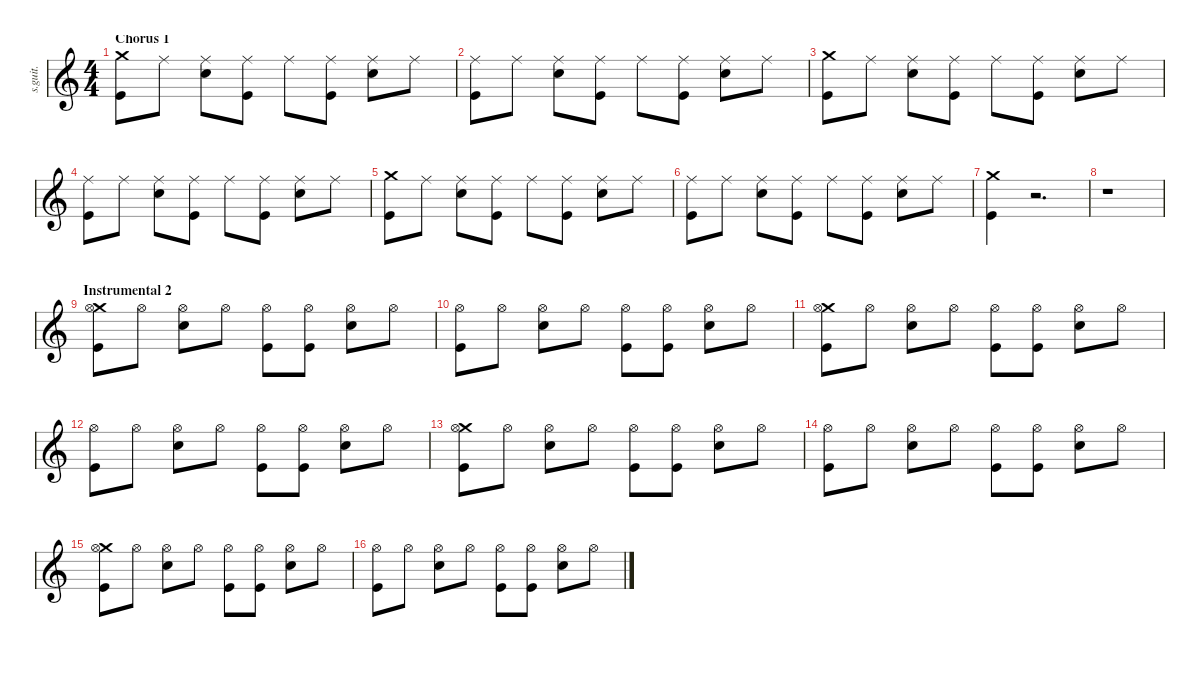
\defaultSystemsLayout 4
\hideDynamics
\bracketExtendMode nobrackets
\track ("Will Champion" "s.guit.") {instrument percussion}
\staff {score}
\articulation defaults
\ts (4 4)
\section ("" "Chorus 1")
\tempo (87 hide)
\clef g2
\ks c
("Crash medium (hit)" "Kick (hit)").8{lyrics (0 "") lyrics (1 "") lyrics (2 "") lyrics (3 "") lyrics (4 "") dy mf} "Ride (middle)".8{lyrics (0 "") lyrics (1 "") lyrics (2 "") lyrics (3 "") lyrics (4 "") dy f} ("Ride (middle)" "Snare (hit) 2").8{lyrics (0 "") lyrics (1 "") lyrics (2 "") lyrics (3 "") lyrics (4 "")} ("Ride (middle)" "Kick (hit)").8{lyrics (0 "") lyrics (1 "") lyrics (2 "") lyrics (3 "") lyrics (4 "")} "Ride (middle)".8{lyrics (0 "") lyrics (1 "") lyrics (2 "") lyrics (3 "") lyrics (4 "")} ("Ride (middle)" "Kick (hit)").8{lyrics (0 "") lyrics (1 "") lyrics (2 "") lyrics (3 "") lyrics (4 "")} ("Ride (middle)" "Snare (hit) 2").8{lyrics (0 "") lyrics (1 "") lyrics (2 "") lyrics (3 "") lyrics (4 "")} "Ride (middle)".8{lyrics (0 "") lyrics (1 "") lyrics (2 "") lyrics (3 "") lyrics (4 "")} |
("Ride (middle)" "Kick (hit)").8{lyrics (0 "") lyrics (1 "") lyrics (2 "") lyrics (3 "") lyrics (4 "")} "Ride (middle)".8{lyrics (0 "") lyrics (1 "") lyrics (2 "") lyrics (3 "") lyrics (4 "")} ("Ride (middle)" "Snare (hit) 2").8{lyrics (0 "") lyrics (1 "") lyrics (2 "") lyrics (3 "") lyrics (4 "")} ("Ride (middle)" "Kick (hit)").8{lyrics (0 "") lyrics (1 "") lyrics (2 "") lyrics (3 "") lyrics (4 "")} "Ride (middle)".8{lyrics (0 "") lyrics (1 "") lyrics (2 "") lyrics (3 "") lyrics (4 "")} ("Ride (middle)" "Kick (hit)").8{lyrics (0 "") lyrics (1 "") lyrics (2 "") lyrics (3 "") lyrics (4 "")} ("Ride (middle)" "Snare (hit) 2").8{lyrics (0 "") lyrics (1 "") lyrics (2 "") lyrics (3 "") lyrics (4 "")} "Ride (middle)".8{lyrics (0 "") lyrics (1 "") lyrics (2 "") lyrics (3 "") lyrics (4 "")} |
("Crash medium (hit)" "Kick (hit)").8{lyrics (0 "") lyrics (1 "") lyrics (2 "") lyrics (3 "") lyrics (4 "") dy mf} "Ride (middle)".8{lyrics (0 "") lyrics (1 "") lyrics (2 "") lyrics (3 "") lyrics (4 "") dy f} ("Ride (middle)" "Snare (hit) 2").8{lyrics (0 "") lyrics (1 "") lyrics (2 "") lyrics (3 "") lyrics (4 "")} ("Ride (middle)" "Kick (hit)").8{lyrics (0 "") lyrics (1 "") lyrics (2 "") lyrics (3 "") lyrics (4 "")} "Ride (middle)".8{lyrics (0 "") lyrics (1 "") lyrics (2 "") lyrics (3 "") lyrics (4 "")} ("Ride (middle)" "Kick (hit)").8{lyrics (0 "") lyrics (1 "") lyrics (2 "") lyrics (3 "") lyrics (4 "")} ("Ride (middle)" "Snare (hit) 2").8{lyrics (0 "") lyrics (1 "") lyrics (2 "") lyrics (3 "") lyrics (4 "")} "Ride (middle)".8{lyrics (0 "") lyrics (1 "") lyrics (2 "") lyrics (3 "") lyrics (4 "")} |
("Ride (middle)" "Kick (hit)").8{lyrics (0 "") lyrics (1 "") lyrics (2 "") lyrics (3 "") lyrics (4 "")} "Ride (middle)".8{lyrics (0 "") lyrics (1 "") lyrics (2 "") lyrics (3 "") lyrics (4 "")} ("Ride (middle)" "Snare (hit) 2").8{lyrics (0 "") lyrics (1 "") lyrics (2 "") lyrics (3 "") lyrics (4 "")} ("Ride (middle)" "Kick (hit)").8{lyrics (0 "") lyrics (1 "") lyrics (2 "") lyrics (3 "") lyrics (4 "")} "Ride (middle)".8{lyrics (0 "") lyrics (1 "") lyrics (2 "") lyrics (3 "") lyrics (4 "")} ("Ride (middle)" "Kick (hit)").8{lyrics (0 "") lyrics (1 "") lyrics (2 "") lyrics (3 "") lyrics (4 "")} ("Ride (middle)" "Snare (hit) 2").8{lyrics (0 "") lyrics (1 "") lyrics (2 "") lyrics (3 "") lyrics (4 "")} "Ride (middle)".8{lyrics (0 "") lyrics (1 "") lyrics (2 "") lyrics (3 "") lyrics (4 "")} |
("Crash medium (hit)" "Kick (hit)").8{lyrics (0 "") lyrics (1 "") lyrics (2 "") lyrics (3 "") lyrics (4 "") dy mf} "Ride (middle)".8{lyrics (0 "") lyrics (1 "") lyrics (2 "") lyrics (3 "") lyrics (4 "") dy f} ("Ride (middle)" "Snare (hit) 2").8{lyrics (0 "") lyrics (1 "") lyrics (2 "") lyrics (3 "") lyrics (4 "")} ("Ride (middle)" "Kick (hit)").8{lyrics (0 "") lyrics (1 "") lyrics (2 "") lyrics (3 "") lyrics (4 "")} "Ride (middle)".8{lyrics (0 "") lyrics (1 "") lyrics (2 "") lyrics (3 "") lyrics (4 "")} ("Ride (middle)" "Kick (hit)").8{lyrics (0 "") lyrics (1 "") lyrics (2 "") lyrics (3 "") lyrics (4 "")} ("Ride (middle)" "Snare (hit) 2").8{lyrics (0 "") lyrics (1 "") lyrics (2 "") lyrics (3 "") lyrics (4 "")} "Ride (middle)".8{lyrics (0 "") lyrics (1 "") lyrics (2 "") lyrics (3 "") lyrics (4 "")} |
("Ride (middle)" "Kick (hit)").8{lyrics (0 "") lyrics (1 "") lyrics (2 "") lyrics (3 "") lyrics (4 "")} "Ride (middle)".8{lyrics (0 "") lyrics (1 "") lyrics (2 "") lyrics (3 "") lyrics (4 "")} ("Ride (middle)" "Snare (hit) 2").8{lyrics (0 "") lyrics (1 "") lyrics (2 "") lyrics (3 "") lyrics (4 "")} ("Ride (middle)" "Kick (hit)").8{lyrics (0 "") lyrics (1 "") lyrics (2 "") lyrics (3 "") lyrics (4 "")} "Ride (middle)".8{lyrics (0 "") lyrics (1 "") lyrics (2 "") lyrics (3 "") lyrics (4 "")} ("Ride (middle)" "Kick (hit)").8{lyrics (0 "") lyrics (1 "") lyrics (2 "") lyrics (3 "") lyrics (4 "")} ("Ride (middle)" "Snare (hit) 2").8{lyrics (0 "") lyrics (1 "") lyrics (2 "") lyrics (3 "") lyrics (4 "")} "Ride (middle)".8{lyrics (0 "") lyrics (1 "") lyrics (2 "") lyrics (3 "") lyrics (4 "")} |
("Crash medium (hit)" "Kick (hit)").4{lyrics (0 "") lyrics (1 "") lyrics (2 "") lyrics (3 "") lyrics (4 "") dy mf} r.2{d} |
r.1 |
\section ("" "Instrumental 2")
("Crash medium (hit)" "Kick (hit)" "Hi-Hat (open)").8{lyrics (0 "") lyrics (1 "") lyrics (2 "") lyrics (3 "") lyrics (4 "")} "Hi-Hat (open)".8{lyrics (0 "") lyrics (1 "") lyrics (2 "") lyrics (3 "") lyrics (4 "")} ("Snare (hit) 2" "Hi-Hat (open)").8{lyrics (0 "") lyrics (1 "") lyrics (2 "") lyrics (3 "") lyrics (4 "")} "Hi-Hat (open)".8{lyrics (0 "") lyrics (1 "") lyrics (2 "") lyrics (3 "") lyrics (4 "")} ("Kick (hit)" "Hi-Hat (open)").8{lyrics (0 "") lyrics (1 "") lyrics (2 "") lyrics (3 "") lyrics (4 "")} ("Kick (hit)" "Hi-Hat (open)").8{lyrics (0 "") lyrics (1 "") lyrics (2 "") lyrics (3 "") lyrics (4 "")} ("Snare (hit) 2" "Hi-Hat (open)").8{lyrics (0 "") lyrics (1 "") lyrics (2 "") lyrics (3 "") lyrics (4 "")} "Hi-Hat (open)".8{lyrics (0 "") lyrics (1 "") lyrics (2 "") lyrics (3 "") lyrics (4 "")} |
("Kick (hit)" "Hi-Hat (open)").8{lyrics (0 "") lyrics (1 "") lyrics (2 "") lyrics (3 "") lyrics (4 "")} "Hi-Hat (open)".8{lyrics (0 "") lyrics (1 "") lyrics (2 "") lyrics (3 "") lyrics (4 "")} ("Snare (hit) 2" "Hi-Hat (open)").8{lyrics (0 "") lyrics (1 "") lyrics (2 "") lyrics (3 "") lyrics (4 "")} "Hi-Hat (open)".8{lyrics (0 "") lyrics (1 "") lyrics (2 "") lyrics (3 "") lyrics (4 "")} ("Kick (hit)" "Hi-Hat (open)").8{lyrics (0 "") lyrics (1 "") lyrics (2 "") lyrics (3 "") lyrics (4 "")} ("Kick (hit)" "Hi-Hat (open)").8{lyrics (0 "") lyrics (1 "") lyrics (2 "") lyrics (3 "") lyrics (4 "")} ("Snare (hit) 2" "Hi-Hat (open)").8{lyrics (0 "") lyrics (1 "") lyrics (2 "") lyrics (3 "") lyrics (4 "")} "Hi-Hat (open)".8{lyrics (0 "") lyrics (1 "") lyrics (2 "") lyrics (3 "") lyrics (4 "")} |
("Crash medium (hit)" "Kick (hit)" "Hi-Hat (open)").8{lyrics (0 "") lyrics (1 "") lyrics (2 "") lyrics (3 "") lyrics (4 "")} "Hi-Hat (open)".8{lyrics (0 "") lyrics (1 "") lyrics (2 "") lyrics (3 "") lyrics (4 "")} ("Snare (hit) 2" "Hi-Hat (open)").8{lyrics (0 "") lyrics (1 "") lyrics (2 "") lyrics (3 "") lyrics (4 "")} "Hi-Hat (open)".8{lyrics (0 "") lyrics (1 "") lyrics (2 "") lyrics (3 "") lyrics (4 "")} ("Kick (hit)" "Hi-Hat (open)").8{lyrics (0 "") lyrics (1 "") lyrics (2 "") lyrics (3 "") lyrics (4 "")} ("Kick (hit)" "Hi-Hat (open)").8{lyrics (0 "") lyrics (1 "") lyrics (2 "") lyrics (3 "") lyrics (4 "")} ("Snare (hit) 2" "Hi-Hat (open)").8{lyrics (0 "") lyrics (1 "") lyrics (2 "") lyrics (3 "") lyrics (4 "")} "Hi-Hat (open)".8{lyrics (0 "") lyrics (1 "") lyrics (2 "") lyrics (3 "") lyrics (4 "")} |
("Kick (hit)" "Hi-Hat (open)").8{lyrics (0 "") lyrics (1 "") lyrics (2 "") lyrics (3 "") lyrics (4 "")} "Hi-Hat (open)".8{lyrics (0 "") lyrics (1 "") lyrics (2 "") lyrics (3 "") lyrics (4 "")} ("Snare (hit) 2" "Hi-Hat (open)").8{lyrics (0 "") lyrics (1 "") lyrics (2 "") lyrics (3 "") lyrics (4 "")} "Hi-Hat (open)".8{lyrics (0 "") lyrics (1 "") lyrics (2 "") lyrics (3 "") lyrics (4 "")} ("Kick (hit)" "Hi-Hat (open)").8{lyrics (0 "") lyrics (1 "") lyrics (2 "") lyrics (3 "") lyrics (4 "")} ("Kick (hit)" "Hi-Hat (open)").8{lyrics (0 "") lyrics (1 "") lyrics (2 "") lyrics (3 "") lyrics (4 "")} ("Snare (hit) 2" "Hi-Hat (open)").8{lyrics (0 "") lyrics (1 "") lyrics (2 "") lyrics (3 "") lyrics (4 "")} "Hi-Hat (open)".8{lyrics (0 "") lyrics (1 "") lyrics (2 "") lyrics (3 "") lyrics (4 "")} |
("Crash medium (hit)" "Kick (hit)" "Hi-Hat (open)").8{lyrics (0 "") lyrics (1 "") lyrics (2 "") lyrics (3 "") lyrics (4 "")} "Hi-Hat (open)".8{lyrics (0 "") lyrics (1 "") lyrics (2 "") lyrics (3 "") lyrics (4 "")} ("Snare (hit) 2" "Hi-Hat (open)").8{lyrics (0 "") lyrics (1 "") lyrics (2 "") lyrics (3 "") lyrics (4 "")} "Hi-Hat (open)".8{lyrics (0 "") lyrics (1 "") lyrics (2 "") lyrics (3 "") lyrics (4 "")} ("Kick (hit)" "Hi-Hat (open)").8{lyrics (0 "") lyrics (1 "") lyrics (2 "") lyrics (3 "") lyrics (4 "")} ("Kick (hit)" "Hi-Hat (open)").8{lyrics (0 "") lyrics (1 "") lyrics (2 "") lyrics (3 "") lyrics (4 "")} ("Snare (hit) 2" "Hi-Hat (open)").8{lyrics (0 "") lyrics (1 "") lyrics (2 "") lyrics (3 "") lyrics (4 "")} "Hi-Hat (open)".8{lyrics (0 "") lyrics (1 "") lyrics (2 "") lyrics (3 "") lyrics (4 "")} |
("Kick (hit)" "Hi-Hat (open)").8{lyrics (0 "") lyrics (1 "") lyrics (2 "") lyrics (3 "") lyrics (4 "")} "Hi-Hat (open)".8{lyrics (0 "") lyrics (1 "") lyrics (2 "") lyrics (3 "") lyrics (4 "")} ("Snare (hit) 2" "Hi-Hat (open)").8{lyrics (0 "") lyrics (1 "") lyrics (2 "") lyrics (3 "") lyrics (4 "")} "Hi-Hat (open)".8{lyrics (0 "") lyrics (1 "") lyrics (2 "") lyrics (3 "") lyrics (4 "")} ("Kick (hit)" "Hi-Hat (open)").8{lyrics (0 "") lyrics (1 "") lyrics (2 "") lyrics (3 "") lyrics (4 "")} ("Kick (hit)" "Hi-Hat (open)").8{lyrics (0 "") lyrics (1 "") lyrics (2 "") lyrics (3 "") lyrics (4 "")} ("Snare (hit) 2" "Hi-Hat (open)").8{lyrics (0 "") lyrics (1 "") lyrics (2 "") lyrics (3 "") lyrics (4 "")} "Hi-Hat (open)".8{lyrics (0 "") lyrics (1 "") lyrics (2 "") lyrics (3 "") lyrics (4 "")} |
("Crash medium (hit)" "Kick (hit)" "Hi-Hat (open)").8{lyrics (0 "") lyrics (1 "") lyrics (2 "") lyrics (3 "") lyrics (4 "")} "Hi-Hat (open)".8{lyrics (0 "") lyrics (1 "") lyrics (2 "") lyrics (3 "") lyrics (4 "")} ("Snare (hit) 2" "Hi-Hat (open)").8{lyrics (0 "") lyrics (1 "") lyrics (2 "") lyrics (3 "") lyrics (4 "")} "Hi-Hat (open)".8{lyrics (0 "") lyrics (1 "") lyrics (2 "") lyrics (3 "") lyrics (4 "")} ("Kick (hit)" "Hi-Hat (open)").8{lyrics (0 "") lyrics (1 "") lyrics (2 "") lyrics (3 "") lyrics (4 "")} ("Kick (hit)" "Hi-Hat (open)").8{lyrics (0 "") lyrics (1 "") lyrics (2 "") lyrics (3 "") lyrics (4 "")} ("Snare (hit) 2" "Hi-Hat (open)").8{lyrics (0 "") lyrics (1 "") lyrics (2 "") lyrics (3 "") lyrics (4 "")} "Hi-Hat (open)".8{lyrics (0 "") lyrics (1 "") lyrics (2 "") lyrics (3 "") lyrics (4 "")} |
("Kick (hit)" "Hi-Hat (open)").8{lyrics (0 "") lyrics (1 "") lyrics (2 "") lyrics (3 "") lyrics (4 "")} "Hi-Hat (open)".8{lyrics (0 "") lyrics (1 "") lyrics (2 "") lyrics (3 "") lyrics (4 "")} ("Snare (hit) 2" "Hi-Hat (open)").8{lyrics (0 "") lyrics (1 "") lyrics (2 "") lyrics (3 "") lyrics (4 "")} "Hi-Hat (open)".8{lyrics (0 "") lyrics (1 "") lyrics (2 "") lyrics (3 "") lyrics (4 "")} ("Kick (hit)" "Hi-Hat (open)").8{lyrics (0 "") lyrics (1 "") lyrics (2 "") lyrics (3 "") lyrics (4 "")} ("Kick (hit)" "Hi-Hat (open)").8{lyrics (0 "") lyrics (1 "") lyrics (2 "") lyrics (3 "") lyrics (4 "")} ("Snare (hit) 2" "Hi-Hat (open)").8{lyrics (0 "") lyrics (1 "") lyrics (2 "") lyrics (3 "") lyrics (4 "")} "Hi-Hat (open)".8{lyrics (0 "") lyrics (1 "") lyrics (2 "") lyrics (3 "") lyrics (4 "")}
